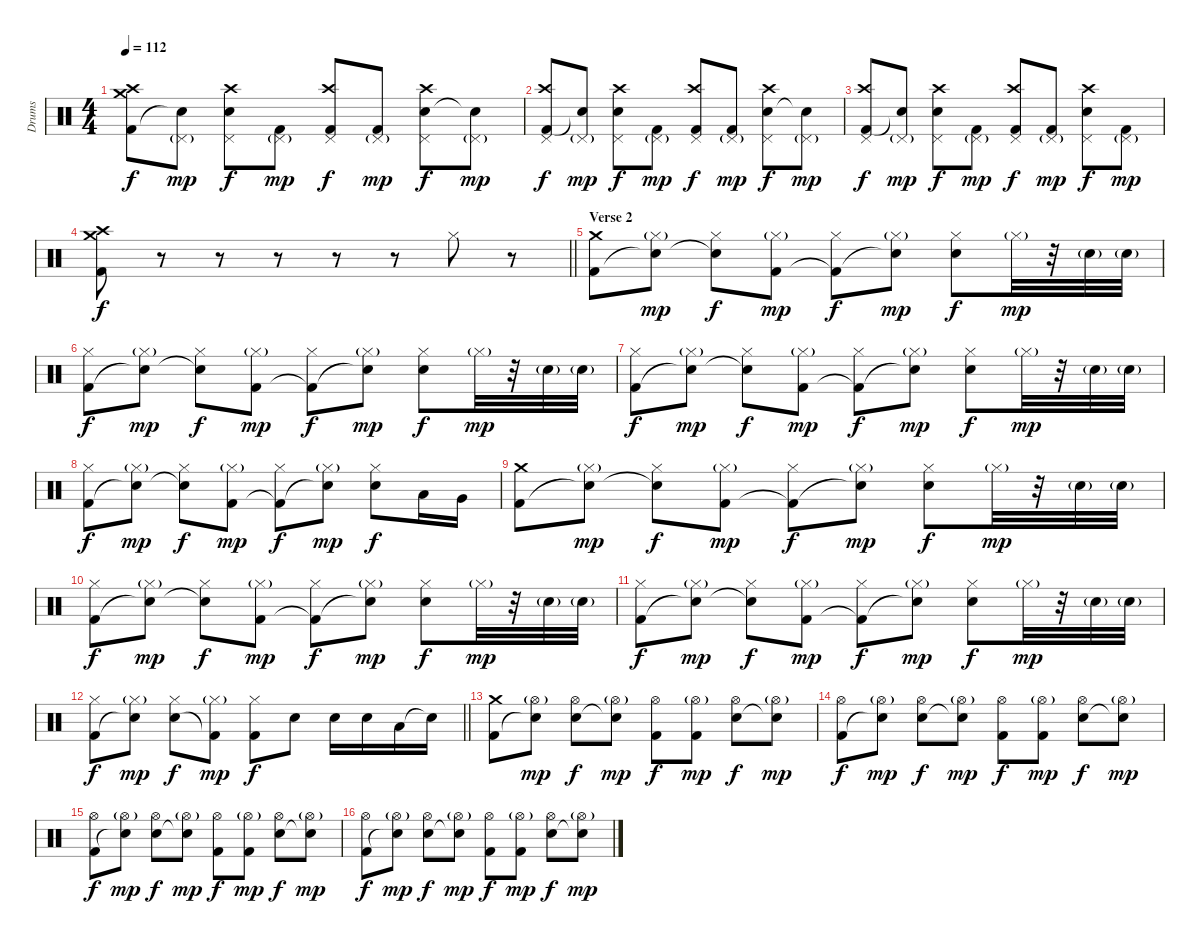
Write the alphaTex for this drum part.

\track ("Drums" "Drums") {instrument percussion}
\staff {score}
\articulation defaults
\ts (4 4)
\tempo 112
\clef neutral
\ks c
("Kick (hit) 2" "Crash medium (hit)" "Crash high (hit)").8{dy f} ("Snare (hit)"{t} "Pedal Hi-Hat (hit)"{g}).8{dy mp} ("Electric Snare (hit)" "Pedal Hi-Hat (hit)" "Crash high (hit)").8{dy f} ("Kick (hit) 2" "Pedal Hi-Hat (hit)"{g}).8{dy mp} ("Kick (hit) 2" "Pedal Hi-Hat (hit)" "Crash high (hit)").8{dy f} ("Kick (hit) 2" "Pedal Hi-Hat (hit)"{g}).8{dy mp} ("Electric Snare (hit)" "Pedal Hi-Hat (hit)" "Crash high (hit)").8{dy f} ("Snare (hit)"{t} "Pedal Hi-Hat (hit)"{g}).8{dy mp} |
("Kick (hit) 2" "Pedal Hi-Hat (hit)" "Crash high (hit)").8{dy f} ("Snare (hit)"{t} "Pedal Hi-Hat (hit)"{g}).8{dy mp} ("Electric Snare (hit)" "Pedal Hi-Hat (hit)" "Crash high (hit)").8{dy f} ("Kick (hit) 2" "Pedal Hi-Hat (hit)"{g}).8{dy mp} ("Kick (hit) 2" "Pedal Hi-Hat (hit)" "Crash high (hit)").8{dy f} ("Kick (hit) 2" "Pedal Hi-Hat (hit)"{g}).8{dy mp} ("Electric Snare (hit)" "Pedal Hi-Hat (hit)" "Crash high (hit)").8{dy f} ("Snare (hit)"{t} "Pedal Hi-Hat (hit)"{g}).8{dy mp} |
("Kick (hit) 2" "Pedal Hi-Hat (hit)" "Crash high (hit)").8{dy f} ("Snare (hit)"{t} "Pedal Hi-Hat (hit)"{g}).8{dy mp} ("Electric Snare (hit)" "Pedal Hi-Hat (hit)" "Crash high (hit)").8{dy f} ("Kick (hit) 2" "Pedal Hi-Hat (hit)"{g}).8{dy mp} ("Kick (hit) 2" "Pedal Hi-Hat (hit)" "Crash high (hit)").8{dy f} ("Kick (hit) 2" "Pedal Hi-Hat (hit)"{g}).8{dy mp} ("Electric Snare (hit)" "Pedal Hi-Hat (hit)" "Crash high (hit)").8{dy f} ("Kick (hit) 2" "Pedal Hi-Hat (hit)"{g}).8{dy mp} |
\barLineRight lightlight
("Kick (hit) 2" "Crash medium (hit)" "Crash high (hit)").8{dy f} r.8 r.8 r.8 r.8 r.8 "Hi-Hat (closed)".8 r.8 |
\section ("" "Verse 2")
("Kick (hit) 2" "Crash medium (hit)").8 ("Snare (hit)"{t} "Hi-Hat (closed)"{g}).8{dy mp} ("Snare (hit)"{t} "Hi-Hat (closed)").8{dy f} ("Kick (hit) 2" "Hi-Hat (closed)"{g}).8{dy mp} ("Kick (hit) 2"{t} "Hi-Hat (closed)").8{dy f} ("Snare (hit)"{t} "Hi-Hat (closed)"{g}).8{dy mp} ("Electric Snare (hit)" "Hi-Hat (closed)").8{dy f} "Hi-Hat (closed)"{g}.32{dy mp} r.32 "Electric Snare (hit)"{g}.32 "Electric Snare (hit)"{g}.32 |
("Kick (hit) 2" "Hi-Hat (closed)").8{dy f} ("Snare (hit)"{t} "Hi-Hat (closed)"{g}).8{dy mp} ("Snare (hit)"{t} "Hi-Hat (closed)").8{dy f} ("Kick (hit) 2" "Hi-Hat (closed)"{g}).8{dy mp} ("Kick (hit) 2"{t} "Hi-Hat (closed)").8{dy f} ("Snare (hit)"{t} "Hi-Hat (closed)"{g}).8{dy mp} ("Electric Snare (hit)" "Hi-Hat (closed)").8{dy f} "Hi-Hat (closed)"{g}.32{dy mp} r.32 "Electric Snare (hit)"{g}.32 "Electric Snare (hit)"{g}.32 |
("Kick (hit) 2" "Hi-Hat (closed)").8{dy f} ("Snare (hit)"{t} "Hi-Hat (closed)"{g}).8{dy mp} ("Snare (hit)"{t} "Hi-Hat (closed)").8{dy f} ("Kick (hit) 2" "Hi-Hat (closed)"{g}).8{dy mp} ("Kick (hit) 2"{t} "Hi-Hat (closed)").8{dy f} ("Snare (hit)"{t} "Hi-Hat (closed)"{g}).8{dy mp} ("Electric Snare (hit)" "Hi-Hat (closed)").8{dy f} "Hi-Hat (closed)"{g}.32{dy mp} r.32 "Electric Snare (hit)"{g}.32 "Electric Snare (hit)"{g}.32 |
("Kick (hit) 2" "Hi-Hat (closed)").8{dy f} ("Snare (hit)"{t} "Hi-Hat (closed)"{g}).8{dy mp} ("Snare (hit)"{t} "Hi-Hat (closed)").8{dy f} ("Kick (hit) 2" "Hi-Hat (closed)"{g}).8{dy mp} ("Kick (hit) 2"{t} "Hi-Hat (closed)").8{dy f} ("Snare (hit)"{t} "Hi-Hat (closed)"{g}).8{dy mp} ("Electric Snare (hit)" "Hi-Hat (closed)").8{dy f} "Low Tom (hit)".16 "Very Low Tom (hit)".16 |
("Kick (hit) 2" "Crash medium (hit)").8 ("Snare (hit)"{t} "Hi-Hat (closed)"{g}).8{dy mp} ("Snare (hit)"{t} "Hi-Hat (closed)").8{dy f} ("Kick (hit) 2" "Hi-Hat (closed)"{g}).8{dy mp} ("Kick (hit) 2"{t} "Hi-Hat (closed)").8{dy f} ("Snare (hit)"{t} "Hi-Hat (closed)"{g}).8{dy mp} ("Electric Snare (hit)" "Hi-Hat (closed)").8{dy f} "Hi-Hat (closed)"{g}.32{dy mp} r.32 "Electric Snare (hit)"{g}.32 "Electric Snare (hit)"{g}.32 |
("Kick (hit) 2" "Hi-Hat (closed)").8{dy f} ("Snare (hit)"{t} "Hi-Hat (closed)"{g}).8{dy mp} ("Snare (hit)"{t} "Hi-Hat (closed)").8{dy f} ("Kick (hit) 2" "Hi-Hat (closed)"{g}).8{dy mp} ("Kick (hit) 2"{t} "Hi-Hat (closed)").8{dy f} ("Snare (hit)"{t} "Hi-Hat (closed)"{g}).8{dy mp} ("Electric Snare (hit)" "Hi-Hat (closed)").8{dy f} "Hi-Hat (closed)"{g}.32{dy mp} r.32 "Electric Snare (hit)"{g}.32 "Electric Snare (hit)"{g}.32 |
("Kick (hit) 2" "Hi-Hat (closed)").8{dy f} ("Snare (hit)"{t} "Hi-Hat (closed)"{g}).8{dy mp} ("Snare (hit)"{t} "Hi-Hat (closed)").8{dy f} ("Kick (hit) 2" "Hi-Hat (closed)"{g}).8{dy mp} ("Kick (hit) 2"{t} "Hi-Hat (closed)").8{dy f} ("Snare (hit)"{t} "Hi-Hat (closed)"{g}).8{dy mp} ("Electric Snare (hit)" "Hi-Hat (closed)").8{dy f} "Hi-Hat (closed)"{g}.32{dy mp} r.32 "Electric Snare (hit)"{g}.32 "Electric Snare (hit)"{g}.32 |
\barLineRight lightlight
("Kick (hit) 2" "Hi-Hat (closed)").8{dy f} ("Snare (hit)"{t} "Hi-Hat (closed)"{g}).8{dy mp} ("Electric Snare (hit)" "Hi-Hat (closed)").8{dy f} ("Kick (hit) 2"{t} "Hi-Hat (closed)"{g}).8{dy mp} ("Kick (hit) 2" "Hi-Hat (closed)").8{dy f} "Electric Snare (hit)".8 "Electric Snare (hit)".16 "Electric Snare (hit)".16 "Low Tom (hit)".16 "Snare (hit)"{t}.16 |
("Kick (hit) 2" "Crash medium (hit)").8 ("Snare (hit)"{t} "Hi-Hat (open)"{g}).8{dy mp} ("Electric Snare (hit)" "Hi-Hat (open)").8{dy f} ("Snare (hit)"{t} "Hi-Hat (open)"{g}).8{dy mp} ("Kick (hit) 2" "Hi-Hat (open)").8{dy f} ("Kick (hit) 2" "Hi-Hat (open)"{g}).8{dy mp} ("Electric Snare (hit)" "Hi-Hat (open)").8{dy f} ("Snare (hit)"{t} "Hi-Hat (open)"{g}).8{dy mp} |
("Kick (hit) 2" "Hi-Hat (open)").8{dy f} ("Snare (hit)"{t} "Hi-Hat (open)"{g}).8{dy mp} ("Electric Snare (hit)" "Hi-Hat (open)").8{dy f} ("Snare (hit)"{t} "Hi-Hat (open)"{g}).8{dy mp} ("Kick (hit) 2" "Hi-Hat (open)").8{dy f} ("Kick (hit) 2" "Hi-Hat (open)"{g}).8{dy mp} ("Electric Snare (hit)" "Hi-Hat (open)").8{dy f} ("Snare (hit)"{t} "Hi-Hat (open)"{g}).8{dy mp} |
("Kick (hit) 2" "Hi-Hat (open)").8{dy f} ("Snare (hit)"{t} "Hi-Hat (open)"{g}).8{dy mp} ("Electric Snare (hit)" "Hi-Hat (open)").8{dy f} ("Snare (hit)"{t} "Hi-Hat (open)"{g}).8{dy mp} ("Kick (hit) 2" "Hi-Hat (open)").8{dy f} ("Kick (hit) 2" "Hi-Hat (open)"{g}).8{dy mp} ("Electric Snare (hit)" "Hi-Hat (open)").8{dy f} ("Snare (hit)"{t} "Hi-Hat (open)"{g}).8{dy mp} |
("Kick (hit) 2" "Hi-Hat (open)").8{dy f} ("Snare (hit)"{t} "Hi-Hat (open)"{g}).8{dy mp} ("Electric Snare (hit)" "Hi-Hat (open)").8{dy f} ("Snare (hit)"{t} "Hi-Hat (open)"{g}).8{dy mp} ("Kick (hit) 2" "Hi-Hat (open)").8{dy f} ("Kick (hit) 2" "Hi-Hat (open)"{g}).8{dy mp} ("Electric Snare (hit)" "Hi-Hat (open)").8{dy f} ("Snare (hit)"{t} "Hi-Hat (open)"{g}).8{dy mp}
